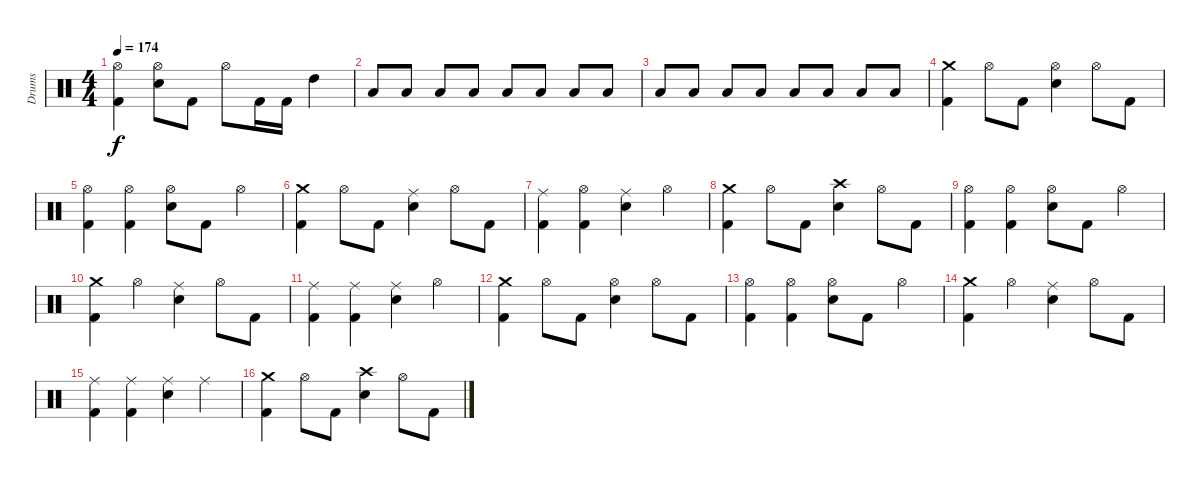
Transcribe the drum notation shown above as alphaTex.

\track ("Drums" "Drums") {instrument percussion}
\staff {score}
\articulation defaults
\ts (4 4)
\tempo 174
\clef neutral
\ks c
("Hi-Hat (open)" "Kick (hit) 2").4{dy f} ("Hi-Hat (open)" "Snare (hit) 2").8 "Kick (hit) 2".8 "Hi-Hat (open)".8 "Kick (hit) 2".16 "Kick (hit) 2".16 "High Tom (hit)".4 |
"Low Floor Tom (hit)".8 "Low Floor Tom (hit)".8 "Low Floor Tom (hit)".8 "Low Floor Tom (hit)".8 "Low Floor Tom (hit)".8 "Low Floor Tom (hit)".8 "Low Floor Tom (hit)".8 "Low Floor Tom (hit)".8 |
"Low Floor Tom (hit)".8 "Low Floor Tom (hit)".8 "Low Floor Tom (hit)".8 "Low Floor Tom (hit)".8 "Low Floor Tom (hit)".8 "Low Floor Tom (hit)".8 "Low Floor Tom (hit)".8 "Low Floor Tom (hit)".8 |
("Crash medium (hit)" "Kick (hit) 2").4 "Hi-Hat (open)".8 "Kick (hit) 2".8 ("Hi-Hat (open)" "Snare (hit) 2").4 "Hi-Hat (open)".8 "Kick (hit) 2".8 |
("Hi-Hat (open)" "Kick (hit) 2").4 ("Hi-Hat (open)" "Kick (hit) 2").4 ("Hi-Hat (open)" "Snare (hit) 2").8 "Kick (hit) 2".8 "Hi-Hat (open)".4 |
("Crash medium (hit)" "Kick (hit) 2").4 "Hi-Hat (open)".8 "Kick (hit) 2".8 ("Ride (middle)" "Snare (hit) 2").4 "Hi-Hat (open)".8 "Kick (hit) 2".8 |
("Ride (middle)" "Kick (hit) 2").4 ("Hi-Hat (open)" "Kick (hit) 2").4 ("Ride (middle)" "Snare (hit) 2").4 "Hi-Hat (open)".4 |
("Crash medium (hit)" "Kick (hit) 2").4 "Hi-Hat (open)".8 "Kick (hit) 2".8 ("Crash high (hit)" "Snare (hit) 2").4 "Hi-Hat (open)".8 "Kick (hit) 2".8 |
("Hi-Hat (open)" "Kick (hit) 2").4 ("Hi-Hat (open)" "Kick (hit) 2").4 ("Hi-Hat (open)" "Snare (hit) 2").8 "Kick (hit) 2".8 "Hi-Hat (open)".4 |
("Crash medium (hit)" "Kick (hit) 2").4 "Hi-Hat (open)".4 ("Ride (middle)" "Snare (hit) 2").4 "Hi-Hat (open)".8 "Kick (hit) 2".8 |
("Ride (middle)" "Kick (hit) 2").4 ("Ride (middle)" "Kick (hit) 2").4 ("Ride (middle)" "Snare (hit) 2").4 "Hi-Hat (open)".4 |
("Crash medium (hit)" "Kick (hit) 2").4 "Hi-Hat (open)".8 "Kick (hit) 2".8 ("Hi-Hat (open)" "Snare (hit) 2").4 "Hi-Hat (open)".8 "Kick (hit) 2".8 |
("Hi-Hat (open)" "Kick (hit) 2").4 ("Hi-Hat (open)" "Kick (hit) 2").4 ("Hi-Hat (open)" "Snare (hit) 2").8 "Kick (hit) 2".8 "Hi-Hat (open)".4 |
("Crash medium (hit)" "Kick (hit) 2").4 "Hi-Hat (open)".4 ("Ride (middle)" "Snare (hit) 2").4 "Hi-Hat (open)".8 "Kick (hit) 2".8 |
("Ride (middle)" "Kick (hit) 2").4 ("Ride (middle)" "Kick (hit) 2").4 ("Ride (middle)" "Snare (hit) 2").4 "Ride (middle)".4 |
("Crash medium (hit)" "Kick (hit) 2").4 "Hi-Hat (open)".8 "Kick (hit) 2".8 ("Crash high (hit)" "Snare (hit) 2").4 "Hi-Hat (open)".8 "Kick (hit) 2".8
